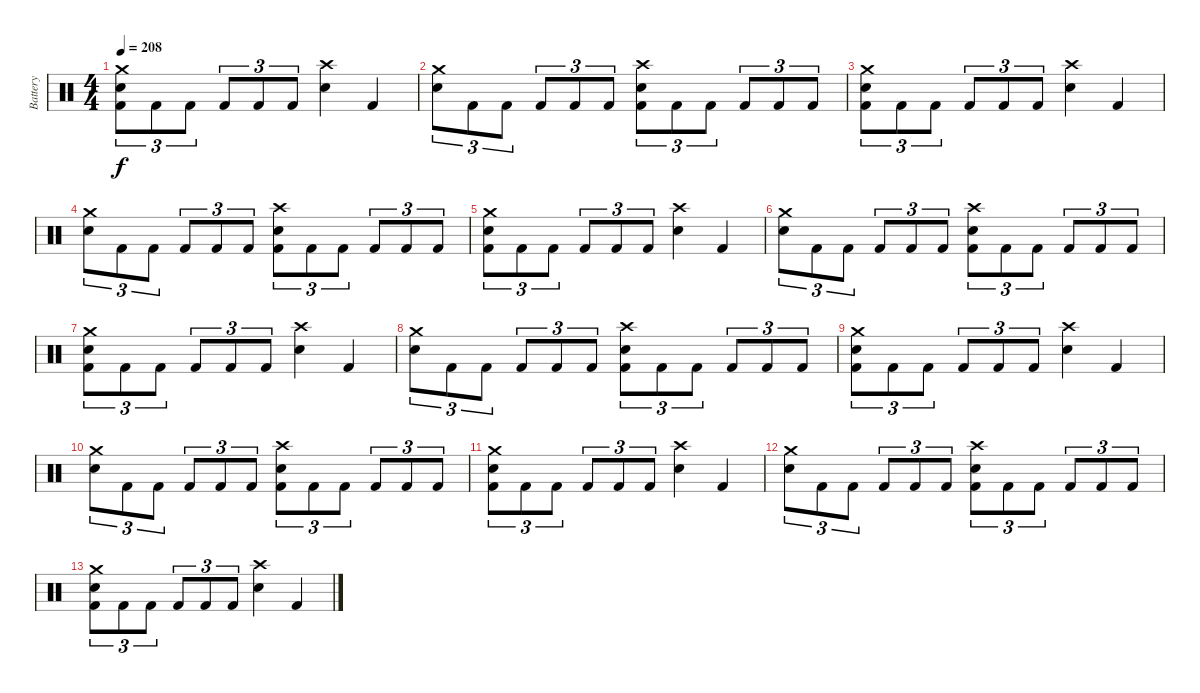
\track ("Battery" "Battery") {instrument percussion}
\staff {score}
\articulation defaults
\ts (4 4)
\tempo 208
\clef neutral
\ks c
("Crash medium (hit)" "Electric Snare (hit)" "Kick (hit) 2").8{tu (3 2) dy f} "Kick (hit) 2".8{tu (3 2)} "Kick (hit) 2".8{tu (3 2)} "Kick (hit) 2".8{tu (3 2)} "Kick (hit) 2".8{tu (3 2)} "Kick (hit) 2".8{tu (3 2)} ("Crash high (hit)" "Electric Snare (hit)").4 "Kick (hit) 2".4 |
("Crash medium (hit)" "Electric Snare (hit)").8{tu (3 2) volume 7} "Kick (hit) 2".8{tu (3 2)} "Kick (hit) 2".8{tu (3 2)} "Kick (hit) 2".8{tu (3 2)} "Kick (hit) 2".8{tu (3 2)} "Kick (hit) 2".8{tu (3 2)} ("Crash high (hit)" "Electric Snare (hit)" "Kick (hit) 2").8{tu (3 2)} "Kick (hit) 2".8{tu (3 2)} "Kick (hit) 2".8{tu (3 2)} "Kick (hit) 2".8{tu (3 2)} "Kick (hit) 2".8{tu (3 2)} "Kick (hit) 2".8{tu (3 2)} |
("Crash medium (hit)" "Electric Snare (hit)" "Kick (hit) 2").8{tu (3 2)} "Kick (hit) 2".8{tu (3 2)} "Kick (hit) 2".8{tu (3 2)} "Kick (hit) 2".8{tu (3 2)} "Kick (hit) 2".8{tu (3 2)} "Kick (hit) 2".8{tu (3 2)} ("Crash high (hit)" "Electric Snare (hit)").4 "Kick (hit) 2".4 |
("Crash medium (hit)" "Electric Snare (hit)").8{tu (3 2)} "Kick (hit) 2".8{tu (3 2)} "Kick (hit) 2".8{tu (3 2)} "Kick (hit) 2".8{tu (3 2)} "Kick (hit) 2".8{tu (3 2)} "Kick (hit) 2".8{tu (3 2)} ("Crash high (hit)" "Electric Snare (hit)" "Kick (hit) 2").8{tu (3 2)} "Kick (hit) 2".8{tu (3 2)} "Kick (hit) 2".8{tu (3 2)} "Kick (hit) 2".8{tu (3 2)} "Kick (hit) 2".8{tu (3 2)} "Kick (hit) 2".8{tu (3 2)} |
("Crash medium (hit)" "Electric Snare (hit)" "Kick (hit) 2").8{tu (3 2)} "Kick (hit) 2".8{tu (3 2)} "Kick (hit) 2".8{tu (3 2)} "Kick (hit) 2".8{tu (3 2)} "Kick (hit) 2".8{tu (3 2)} "Kick (hit) 2".8{tu (3 2)} ("Crash high (hit)" "Electric Snare (hit)").4 "Kick (hit) 2".4 |
("Crash medium (hit)" "Electric Snare (hit)").8{tu (3 2) volume 4} "Kick (hit) 2".8{tu (3 2)} "Kick (hit) 2".8{tu (3 2)} "Kick (hit) 2".8{tu (3 2)} "Kick (hit) 2".8{tu (3 2)} "Kick (hit) 2".8{tu (3 2)} ("Crash high (hit)" "Electric Snare (hit)" "Kick (hit) 2").8{tu (3 2)} "Kick (hit) 2".8{tu (3 2)} "Kick (hit) 2".8{tu (3 2)} "Kick (hit) 2".8{tu (3 2)} "Kick (hit) 2".8{tu (3 2)} "Kick (hit) 2".8{tu (3 2)} |
("Crash medium (hit)" "Electric Snare (hit)" "Kick (hit) 2").8{tu (3 2)} "Kick (hit) 2".8{tu (3 2)} "Kick (hit) 2".8{tu (3 2)} "Kick (hit) 2".8{tu (3 2)} "Kick (hit) 2".8{tu (3 2)} "Kick (hit) 2".8{tu (3 2)} ("Crash high (hit)" "Electric Snare (hit)").4 "Kick (hit) 2".4 |
("Crash medium (hit)" "Electric Snare (hit)").8{tu (3 2)} "Kick (hit) 2".8{tu (3 2)} "Kick (hit) 2".8{tu (3 2)} "Kick (hit) 2".8{tu (3 2)} "Kick (hit) 2".8{tu (3 2)} "Kick (hit) 2".8{tu (3 2)} ("Crash high (hit)" "Electric Snare (hit)" "Kick (hit) 2").8{tu (3 2)} "Kick (hit) 2".8{tu (3 2)} "Kick (hit) 2".8{tu (3 2)} "Kick (hit) 2".8{tu (3 2)} "Kick (hit) 2".8{tu (3 2)} "Kick (hit) 2".8{tu (3 2)} |
("Crash medium (hit)" "Electric Snare (hit)" "Kick (hit) 2").8{tu (3 2)} "Kick (hit) 2".8{tu (3 2)} "Kick (hit) 2".8{tu (3 2)} "Kick (hit) 2".8{tu (3 2)} "Kick (hit) 2".8{tu (3 2)} "Kick (hit) 2".8{tu (3 2)} ("Crash high (hit)" "Electric Snare (hit)").4 "Kick (hit) 2".4 |
("Crash medium (hit)" "Electric Snare (hit)").8{tu (3 2) volume 0} "Kick (hit) 2".8{tu (3 2)} "Kick (hit) 2".8{tu (3 2)} "Kick (hit) 2".8{tu (3 2)} "Kick (hit) 2".8{tu (3 2)} "Kick (hit) 2".8{tu (3 2)} ("Crash high (hit)" "Electric Snare (hit)" "Kick (hit) 2").8{tu (3 2)} "Kick (hit) 2".8{tu (3 2)} "Kick (hit) 2".8{tu (3 2)} "Kick (hit) 2".8{tu (3 2)} "Kick (hit) 2".8{tu (3 2)} "Kick (hit) 2".8{tu (3 2)} |
("Crash medium (hit)" "Electric Snare (hit)" "Kick (hit) 2").8{tu (3 2)} "Kick (hit) 2".8{tu (3 2)} "Kick (hit) 2".8{tu (3 2)} "Kick (hit) 2".8{tu (3 2)} "Kick (hit) 2".8{tu (3 2)} "Kick (hit) 2".8{tu (3 2)} ("Crash high (hit)" "Electric Snare (hit)").4 "Kick (hit) 2".4 |
("Crash medium (hit)" "Electric Snare (hit)").8{tu (3 2)} "Kick (hit) 2".8{tu (3 2)} "Kick (hit) 2".8{tu (3 2)} "Kick (hit) 2".8{tu (3 2)} "Kick (hit) 2".8{tu (3 2)} "Kick (hit) 2".8{tu (3 2)} ("Crash high (hit)" "Electric Snare (hit)" "Kick (hit) 2").8{tu (3 2)} "Kick (hit) 2".8{tu (3 2)} "Kick (hit) 2".8{tu (3 2)} "Kick (hit) 2".8{tu (3 2)} "Kick (hit) 2".8{tu (3 2)} "Kick (hit) 2".8{tu (3 2)} |
("Crash medium (hit)" "Electric Snare (hit)" "Kick (hit) 2").8{tu (3 2)} "Kick (hit) 2".8{tu (3 2)} "Kick (hit) 2".8{tu (3 2)} "Kick (hit) 2".8{tu (3 2)} "Kick (hit) 2".8{tu (3 2)} "Kick (hit) 2".8{tu (3 2)} ("Crash high (hit)" "Electric Snare (hit)").4 "Kick (hit) 2".4
